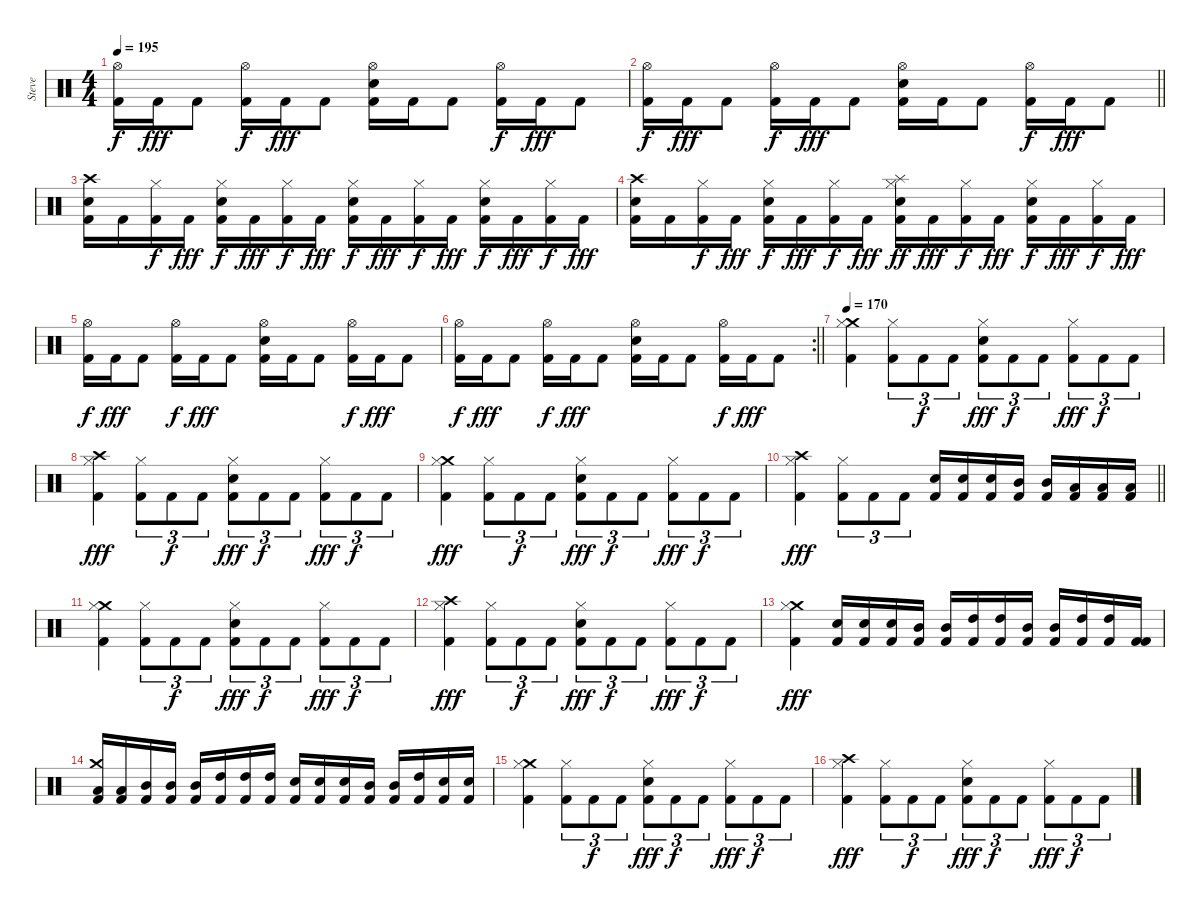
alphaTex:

\track ("Steve" "Steve") {instrument percussion}
\staff {score}
\articulation defaults
\ts (4 4)
\tempo 195
\clef neutral
\ks c
("Hi-Hat (open)" "Kick (hit) 2").16{dy f} "Kick (hit) 2".16{dy fff} "Kick (hit) 2".8 ("Hi-Hat (open)" "Kick (hit) 2").16{dy f} "Kick (hit) 2".16{dy fff} "Kick (hit) 2".8 ("Snare (hit) 2" "Hi-Hat (open)" "Kick (hit) 2").16 "Kick (hit) 2".16 "Kick (hit) 2".8 ("Hi-Hat (open)" "Kick (hit) 2").16{dy f} "Kick (hit) 2".16{dy fff} "Kick (hit) 2".8 |
\barLineRight lightlight
("Hi-Hat (open)" "Kick (hit) 2").16{dy f} "Kick (hit) 2".16{dy fff} "Kick (hit) 2".8 ("Hi-Hat (open)" "Kick (hit) 2").16{dy f} "Kick (hit) 2".16{dy fff} "Kick (hit) 2".8 ("Snare (hit) 2" "Hi-Hat (open)" "Kick (hit) 2").16 "Kick (hit) 2".16 "Kick (hit) 2".8 ("Hi-Hat (open)" "Kick (hit) 2").16{dy f} "Kick (hit) 2".16{dy fff} "Kick (hit) 2".8 |
("Snare (hit) 2" "Crash high (hit)" "Kick (hit) 2").16 "Kick (hit) 2".16 ("Hi-Hat (closed)" "Kick (hit) 2").16{dy f} "Kick (hit) 2".16{dy fff} ("Snare (hit) 2" "Hi-Hat (closed)" "Kick (hit) 2").16{dy f} "Kick (hit) 2".16{dy fff} ("Hi-Hat (closed)" "Kick (hit) 2").16{dy f} "Kick (hit) 2".16{dy fff} ("Snare (hit) 2" "Hi-Hat (closed)" "Kick (hit) 2").16{dy f} "Kick (hit) 2".16{dy fff} ("Hi-Hat (closed)" "Kick (hit) 2").16{dy f} "Kick (hit) 2".16{dy fff} ("Snare (hit) 2" "Hi-Hat (closed)" "Kick (hit) 2").16{dy f} "Kick (hit) 2".16{dy fff} ("Hi-Hat (closed)" "Kick (hit) 2").16{dy f} "Kick (hit) 2".16{dy fff} |
("Snare (hit) 2" "Crash high (hit)" "Kick (hit) 2").16 "Kick (hit) 2".16 ("Hi-Hat (closed)" "Kick (hit) 2").16{dy f} "Kick (hit) 2".16{dy fff} ("Snare (hit) 2" "Hi-Hat (closed)" "Kick (hit) 2").16{dy f} "Kick (hit) 2".16{dy fff} ("Hi-Hat (closed)" "Kick (hit) 2").16{dy f} "Kick (hit) 2".16{dy fff} ("Snare (hit) 2" "Splash (hit)" "Hi-Hat (closed)" "Kick (hit) 2").16{dy ff} "Kick (hit) 2".16{dy fff} ("Hi-Hat (closed)" "Kick (hit) 2").16{dy f} "Kick (hit) 2".16{dy fff} ("Snare (hit) 2" "Hi-Hat (closed)" "Kick (hit) 2").16{dy f} "Kick (hit) 2".16{dy fff} ("Hi-Hat (closed)" "Kick (hit) 2").16{dy f} "Kick (hit) 2".16{dy fff} |
("Hi-Hat (open)" "Kick (hit) 2").16{dy f} "Kick (hit) 2".16{dy fff} "Kick (hit) 2".8 ("Hi-Hat (open)" "Kick (hit) 2").16{dy f} "Kick (hit) 2".16{dy fff} "Kick (hit) 2".8 ("Snare (hit) 2" "Hi-Hat (open)" "Kick (hit) 2").16 "Kick (hit) 2".16 "Kick (hit) 2".8 ("Hi-Hat (open)" "Kick (hit) 2").16{dy f} "Kick (hit) 2".16{dy fff} "Kick (hit) 2".8 |
\rc 2
\barLineRight lightlight
("Hi-Hat (open)" "Kick (hit) 2").16{dy f} "Kick (hit) 2".16{dy fff} "Kick (hit) 2".8 ("Hi-Hat (open)" "Kick (hit) 2").16{dy f} "Kick (hit) 2".16{dy fff} "Kick (hit) 2".8 ("Snare (hit) 2" "Hi-Hat (open)" "Kick (hit) 2").16 "Kick (hit) 2".16 "Kick (hit) 2".8 ("Hi-Hat (open)" "Kick (hit) 2").16{dy f} "Kick (hit) 2".16{dy fff} "Kick (hit) 2".8 |
\tempo 170
("Crash medium (hit)" "Hi-Hat (closed)" "Kick (hit) 2").4 ("Hi-Hat (closed)" "Kick (hit) 2").8{tu (3 2)} "Kick (hit) 2".8{tu (3 2) dy f} "Kick (hit) 2".8{tu (3 2)} ("Snare (hit) 2" "Hi-Hat (closed)" "Kick (hit) 2").8{tu (3 2) dy fff} "Kick (hit) 2".8{tu (3 2) dy f} "Kick (hit) 2".8{tu (3 2)} ("Hi-Hat (closed)" "Kick (hit) 2").8{tu (3 2) dy fff} "Kick (hit) 2".8{tu (3 2) dy f} "Kick (hit) 2".8{tu (3 2)} |
("Crash high (hit)" "Hi-Hat (closed)" "Kick (hit) 2").4{dy fff} ("Hi-Hat (closed)" "Kick (hit) 2").8{tu (3 2)} "Kick (hit) 2".8{tu (3 2) dy f} "Kick (hit) 2".8{tu (3 2)} ("Snare (hit) 2" "Hi-Hat (closed)" "Kick (hit) 2").8{tu (3 2) dy fff} "Kick (hit) 2".8{tu (3 2) dy f} "Kick (hit) 2".8{tu (3 2)} ("Hi-Hat (closed)" "Kick (hit) 2").8{tu (3 2) dy fff} "Kick (hit) 2".8{tu (3 2) dy f} "Kick (hit) 2".8{tu (3 2)} |
("Crash medium (hit)" "Hi-Hat (closed)" "Kick (hit) 2").4{dy fff} ("Hi-Hat (closed)" "Kick (hit) 2").8{tu (3 2)} "Kick (hit) 2".8{tu (3 2) dy f} "Kick (hit) 2".8{tu (3 2)} ("Snare (hit) 2" "Hi-Hat (closed)" "Kick (hit) 2").8{tu (3 2) dy fff} "Kick (hit) 2".8{tu (3 2) dy f} "Kick (hit) 2".8{tu (3 2)} ("Hi-Hat (closed)" "Kick (hit) 2").8{tu (3 2) dy fff} "Kick (hit) 2".8{tu (3 2) dy f} "Kick (hit) 2".8{tu (3 2)} |
\barLineRight lightlight
("Crash high (hit)" "Hi-Hat (closed)" "Kick (hit) 2").4{dy fff} ("Hi-Hat (closed)" "Kick (hit) 2").8{tu (3 2)} "Kick (hit) 2".8{tu (3 2)} "Kick (hit) 2".8{tu (3 2)} ("Snare (hit) 2" "Kick (hit) 2").16 ("Snare (hit) 2" "Kick (hit) 2").16 ("Snare (hit) 2" "Kick (hit) 2").16 ("Mid Tom (hit)" "Kick (hit) 2").16 ("Mid Tom (hit)" "Kick (hit) 2").16 ("Low Tom (hit)" "Kick (hit) 2").16 ("Low Tom (hit)" "Kick (hit) 2").16 ("Low Tom (hit)" "Kick (hit) 2").16 |
("Crash medium (hit)" "Hi-Hat (closed)" "Kick (hit) 2").4 ("Hi-Hat (closed)" "Kick (hit) 2").8{tu (3 2)} "Kick (hit) 2".8{tu (3 2) dy f} "Kick (hit) 2".8{tu (3 2)} ("Snare (hit) 2" "Hi-Hat (closed)" "Kick (hit) 2").8{tu (3 2) dy fff} "Kick (hit) 2".8{tu (3 2) dy f} "Kick (hit) 2".8{tu (3 2)} ("Hi-Hat (closed)" "Kick (hit) 2").8{tu (3 2) dy fff} "Kick (hit) 2".8{tu (3 2) dy f} "Kick (hit) 2".8{tu (3 2)} |
("Crash high (hit)" "Hi-Hat (closed)" "Kick (hit) 2").4{dy fff} ("Hi-Hat (closed)" "Kick (hit) 2").8{tu (3 2)} "Kick (hit) 2".8{tu (3 2) dy f} "Kick (hit) 2".8{tu (3 2)} ("Snare (hit) 2" "Hi-Hat (closed)" "Kick (hit) 2").8{tu (3 2) dy fff} "Kick (hit) 2".8{tu (3 2) dy f} "Kick (hit) 2".8{tu (3 2)} ("Hi-Hat (closed)" "Kick (hit) 2").8{tu (3 2) dy fff} "Kick (hit) 2".8{tu (3 2) dy f} "Kick (hit) 2".8{tu (3 2)} |
("Crash medium (hit)" "Hi-Hat (closed)" "Kick (hit) 2").4{dy fff} ("Snare (hit) 2" "Kick (hit) 2").16 ("Snare (hit) 2" "Kick (hit) 2").16 ("Snare (hit) 2" "Kick (hit) 2").16 ("Mid Tom (hit)" "Kick (hit) 2").16 ("Mid Tom (hit)" "Kick (hit) 2").16 ("High Tom (hit)" "Kick (hit) 2").16 ("High Tom (hit)" "Kick (hit) 2").16 ("Mid Tom (hit)" "Kick (hit) 2").16 ("Mid Tom (hit)" "Kick (hit) 2").16 ("High Tom (hit)" "Kick (hit) 2").16 ("High Tom (hit)" "Kick (hit) 2").16 ("Kick (hit) 2" "Kick (hit) 2").16 |
("Crash medium (hit)" "Low Floor Tom (hit)" "Kick (hit) 2").16 ("Low Floor Tom (hit)" "Kick (hit) 2").16 ("Mid Tom (hit)" "Kick (hit) 2").16 ("Mid Tom (hit)" "Kick (hit) 2").16 ("Mid Tom (hit)" "Kick (hit) 2").16 ("High Tom (hit)" "Kick (hit) 2").16 ("High Tom (hit)" "Kick (hit) 2").16 ("High Tom (hit)" "Kick (hit) 2").16 ("Snare (hit) 2" "Kick (hit) 2").16 ("Snare (hit) 2" "Kick (hit) 2").16 ("Snare (hit) 2" "Kick (hit) 2").16 ("Mid Tom (hit)" "Kick (hit) 2").16 ("Mid Tom (hit)" "Kick (hit) 2").16 ("High Tom (hit)" "Kick (hit) 2").16 ("Snare (hit) 2" "Kick (hit) 2").16 ("Snare (hit) 2" "Kick (hit) 2").16 |
("Crash medium (hit)" "Hi-Hat (closed)" "Kick (hit) 2").4 ("Hi-Hat (closed)" "Kick (hit) 2").8{tu (3 2)} "Kick (hit) 2".8{tu (3 2) dy f} "Kick (hit) 2".8{tu (3 2)} ("Snare (hit) 2" "Hi-Hat (closed)" "Kick (hit) 2").8{tu (3 2) dy fff} "Kick (hit) 2".8{tu (3 2) dy f} "Kick (hit) 2".8{tu (3 2)} ("Hi-Hat (closed)" "Kick (hit) 2").8{tu (3 2) dy fff} "Kick (hit) 2".8{tu (3 2) dy f} "Kick (hit) 2".8{tu (3 2)} |
("Crash high (hit)" "Hi-Hat (closed)" "Kick (hit) 2").4{dy fff} ("Hi-Hat (closed)" "Kick (hit) 2").8{tu (3 2)} "Kick (hit) 2".8{tu (3 2) dy f} "Kick (hit) 2".8{tu (3 2)} ("Snare (hit) 2" "Hi-Hat (closed)" "Kick (hit) 2").8{tu (3 2) dy fff} "Kick (hit) 2".8{tu (3 2) dy f} "Kick (hit) 2".8{tu (3 2)} ("Hi-Hat (closed)" "Kick (hit) 2").8{tu (3 2) dy fff} "Kick (hit) 2".8{tu (3 2) dy f} "Kick (hit) 2".8{tu (3 2)}
